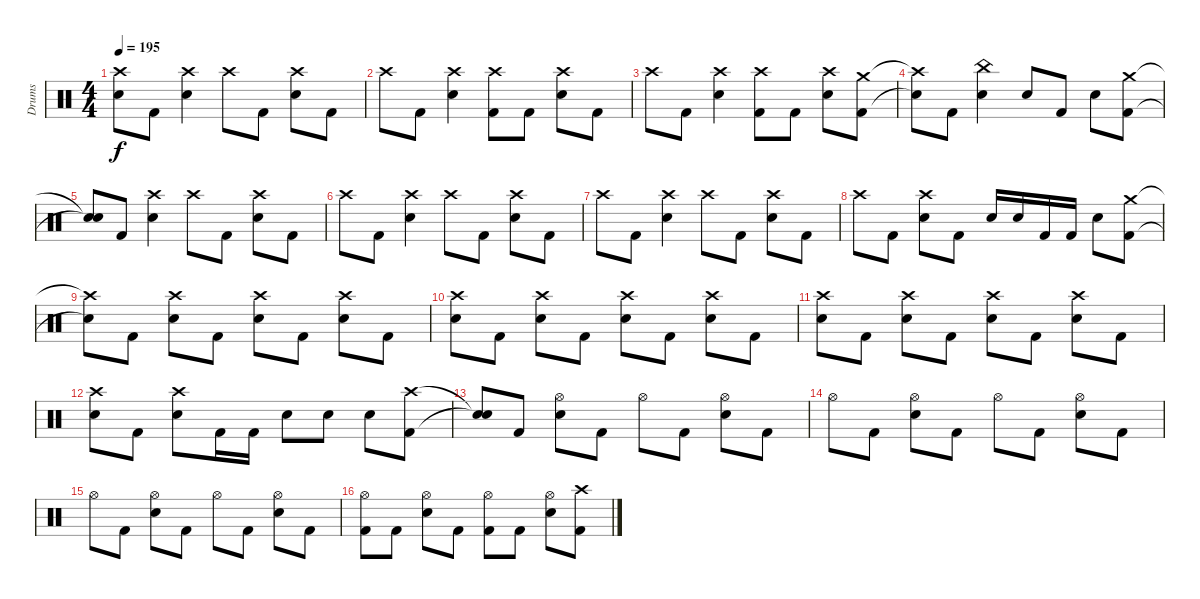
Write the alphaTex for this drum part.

\track ("Drums" "Drums") {instrument percussion}
\staff {score}
\articulation defaults
\ts (4 4)
\tempo 195
\clef neutral
\ks c
("Crash high (hit)"{t} "Snare (hit)"{t}).8{dy f} "Kick (hit) 2".8 ("Crash high (hit)" "Electric Snare (hit)").4 "Crash high (hit)".8 "Kick (hit) 2".8 ("Crash high (hit)" "Electric Snare (hit)").8 "Kick (hit) 2".8 |
"Crash high (hit)".8 "Kick (hit) 2".8 ("Crash high (hit)" "Electric Snare (hit)").4 ("Crash high (hit)" "Kick (hit) 2").8 "Kick (hit) 2".8 ("Crash high (hit)" "Electric Snare (hit)").8 "Kick (hit) 2".8 |
"Crash high (hit)".8 "Kick (hit) 2".8 ("Crash high (hit)" "Electric Snare (hit)").4 ("Crash high (hit)" "Kick (hit) 2").8 "Kick (hit) 2".8 ("Crash high (hit)" "Electric Snare (hit)").8 ("Crash medium (hit)" "Kick (hit) 2").8 |
("Crash high (hit)"{t} "Snare (hit)"{t}).8 "Kick (hit) 2".8 ("China (hit)" "Electric Snare (hit)").4 "Electric Snare (hit)".8 "Kick (hit) 2".8 "Electric Snare (hit)".8 ("Crash medium (hit)" "Kick (hit) 2").8 |
("Snare (hit)"{t} "Snare (hit)"{t}).8 "Kick (hit) 2".8 ("Crash high (hit)" "Electric Snare (hit)").4 "Crash high (hit)".8 "Kick (hit) 2".8 ("Crash high (hit)" "Electric Snare (hit)").8 "Kick (hit) 2".8 |
"Crash high (hit)".8 "Kick (hit) 2".8 ("Crash high (hit)" "Electric Snare (hit)").4 "Crash high (hit)".8 "Kick (hit) 2".8 ("Crash high (hit)" "Electric Snare (hit)").8 "Kick (hit) 2".8 |
"Crash high (hit)".8 "Kick (hit) 2".8 ("Crash high (hit)" "Electric Snare (hit)").4 "Crash high (hit)".8 "Kick (hit) 2".8 ("Crash high (hit)" "Electric Snare (hit)").8 "Kick (hit) 2".8 |
"Crash high (hit)".8 "Kick (hit) 2".8 ("Crash high (hit)" "Electric Snare (hit)").8 "Kick (hit) 2".8 "Electric Snare (hit)".16 "Electric Snare (hit)".16 "Kick (hit) 2".16 "Kick (hit) 2".16 "Electric Snare (hit)".8 ("Crash medium (hit)" "Kick (hit) 2").8 |
("Crash high (hit)"{t} "Snare (hit)"{t}).8 "Kick (hit) 2".8 ("Crash high (hit)" "Electric Snare (hit)").8 "Kick (hit) 2".8 ("Crash high (hit)" "Electric Snare (hit)").8 "Kick (hit) 2".8 ("Crash high (hit)" "Electric Snare (hit)").8 "Kick (hit) 2".8 |
("Crash high (hit)" "Electric Snare (hit)").8 "Kick (hit) 2".8 ("Crash high (hit)" "Electric Snare (hit)").8 "Kick (hit) 2".8 ("Crash high (hit)" "Electric Snare (hit)").8 "Kick (hit) 2".8 ("Crash high (hit)" "Electric Snare (hit)").8 "Kick (hit) 2".8 |
("Crash high (hit)" "Electric Snare (hit)").8 "Kick (hit) 2".8 ("Crash high (hit)" "Electric Snare (hit)").8 "Kick (hit) 2".8 ("Crash high (hit)" "Electric Snare (hit)").8 "Kick (hit) 2".8 ("Crash high (hit)" "Electric Snare (hit)").8 "Kick (hit) 2".8 |
("Crash high (hit)" "Electric Snare (hit)").8 "Kick (hit) 2".8 ("Crash high (hit)" "Electric Snare (hit)").8 "Kick (hit) 2".16 "Kick (hit) 2".16 "Electric Snare (hit)".8 "Electric Snare (hit)".8 "Electric Snare (hit)".8 ("Crash high (hit)" "Kick (hit) 2").8 |
("Snare (hit)"{t} "Snare (hit)"{t}).8 "Kick (hit) 2".8 ("Hi-Hat (open)" "Electric Snare (hit)").8 "Kick (hit) 2".8 "Hi-Hat (open)".8 "Kick (hit) 2".8 ("Hi-Hat (open)" "Electric Snare (hit)").8 "Kick (hit) 2".8 |
"Hi-Hat (open)".8 "Kick (hit) 2".8 ("Hi-Hat (open)" "Electric Snare (hit)").8 "Kick (hit) 2".8 "Hi-Hat (open)".8 "Kick (hit) 2".8 ("Hi-Hat (open)" "Electric Snare (hit)").8 "Kick (hit) 2".8 |
"Hi-Hat (open)".8 "Kick (hit) 2".8 ("Hi-Hat (open)" "Electric Snare (hit)").8 "Kick (hit) 2".8 "Hi-Hat (open)".8 "Kick (hit) 2".8 ("Hi-Hat (open)" "Electric Snare (hit)").8 "Kick (hit) 2".8 |
("Hi-Hat (open)" "Kick (hit) 2").8 "Kick (hit) 2".8 ("Hi-Hat (open)" "Electric Snare (hit)").8 "Kick (hit) 2".8 ("Hi-Hat (open)" "Kick (hit) 2").8 "Kick (hit) 2".8 ("Hi-Hat (open)" "Electric Snare (hit)").8 ("Crash high (hit)" "Kick (hit) 2").8
